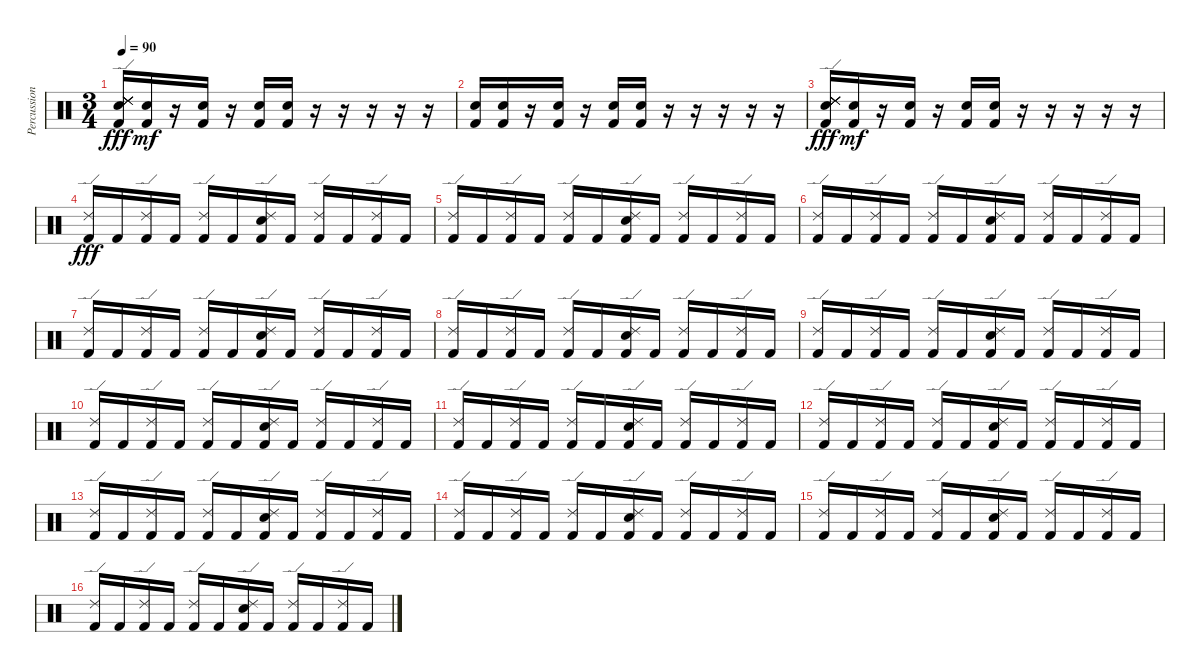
\track ("Percussioni" "Percussion") {instrument percussion}
\staff {score}
\articulation defaults
\ts (3 4)
\tempo 90
\clef neutral
\ks c
("Kick (hit) 2" "Snare (hit) 2" "Ride (edge) 2" "Ride (edge) 2" "Ride (edge) 2" "Ride (edge) 2").16{dy fff} ("Kick (hit) 2" "Snare (hit) 2").16{dy mf} r.16 ("Kick (hit) 2" "Snare (hit) 2").16 r.16 ("Kick (hit) 2" "Snare (hit) 2").16 ("Kick (hit) 2" "Snare (hit) 2").16 r.16 r.16 r.16 r.16 r.16 |
("Kick (hit) 2" "Snare (hit) 2").16 ("Kick (hit) 2" "Snare (hit) 2").16 r.16 ("Kick (hit) 2" "Snare (hit) 2").16 r.16 ("Kick (hit) 2" "Snare (hit) 2").16 ("Kick (hit) 2" "Snare (hit) 2").16 r.16 r.16 r.16 r.16 r.16 |
("Kick (hit) 2" "Snare (hit) 2" "Ride (edge) 2" "Ride (edge) 2" "Ride (edge) 2" "Ride (edge) 2").16{dy fff} ("Kick (hit) 2" "Snare (hit) 2").16{dy mf} r.16 ("Kick (hit) 2" "Snare (hit) 2").16 r.16 ("Kick (hit) 2" "Snare (hit) 2").16 ("Kick (hit) 2" "Snare (hit) 2").16 r.16 r.16 r.16 r.16 r.16 |
("Kick (hit) 2" "Ride (edge) 2").16{dy fff} "Kick (hit) 2".16 ("Kick (hit) 2" "Ride (edge) 2").16 "Kick (hit) 2".16 ("Kick (hit) 2" "Ride (edge) 2").16 "Kick (hit) 2".16 ("Kick (hit) 2" "Snare (hit) 2" "Ride (edge) 2").16 "Kick (hit) 2".16 ("Kick (hit) 2" "Ride (edge) 2").16 "Kick (hit) 2".16 ("Kick (hit) 2" "Ride (edge) 2").16 "Kick (hit) 2".16 |
("Kick (hit) 2" "Ride (edge) 2").16 "Kick (hit) 2".16 ("Kick (hit) 2" "Ride (edge) 2").16 "Kick (hit) 2".16 ("Kick (hit) 2" "Ride (edge) 2").16 "Kick (hit) 2".16 ("Kick (hit) 2" "Snare (hit) 2" "Ride (edge) 2").16 "Kick (hit) 2".16 ("Kick (hit) 2" "Ride (edge) 2").16 "Kick (hit) 2".16 ("Kick (hit) 2" "Ride (edge) 2").16 "Kick (hit) 2".16 |
("Kick (hit) 2" "Ride (edge) 2").16 "Kick (hit) 2".16 ("Kick (hit) 2" "Ride (edge) 2").16 "Kick (hit) 2".16 ("Kick (hit) 2" "Ride (edge) 2").16 "Kick (hit) 2".16 ("Kick (hit) 2" "Snare (hit) 2" "Ride (edge) 2").16 "Kick (hit) 2".16 ("Kick (hit) 2" "Ride (edge) 2").16 "Kick (hit) 2".16 ("Kick (hit) 2" "Ride (edge) 2").16 "Kick (hit) 2".16 |
("Kick (hit) 2" "Ride (edge) 2").16 "Kick (hit) 2".16 ("Kick (hit) 2" "Ride (edge) 2").16 "Kick (hit) 2".16 ("Kick (hit) 2" "Ride (edge) 2").16 "Kick (hit) 2".16 ("Kick (hit) 2" "Snare (hit) 2" "Ride (edge) 2").16 "Kick (hit) 2".16 ("Kick (hit) 2" "Ride (edge) 2").16 "Kick (hit) 2".16 ("Kick (hit) 2" "Ride (edge) 2").16 "Kick (hit) 2".16 |
("Kick (hit) 2" "Ride (edge) 2").16 "Kick (hit) 2".16 ("Kick (hit) 2" "Ride (edge) 2").16 "Kick (hit) 2".16 ("Kick (hit) 2" "Ride (edge) 2").16 "Kick (hit) 2".16 ("Kick (hit) 2" "Snare (hit) 2" "Ride (edge) 2").16 "Kick (hit) 2".16 ("Kick (hit) 2" "Ride (edge) 2").16 "Kick (hit) 2".16 ("Kick (hit) 2" "Ride (edge) 2").16 "Kick (hit) 2".16 |
("Kick (hit) 2" "Ride (edge) 2").16 "Kick (hit) 2".16 ("Kick (hit) 2" "Ride (edge) 2").16 "Kick (hit) 2".16 ("Kick (hit) 2" "Ride (edge) 2").16 "Kick (hit) 2".16 ("Kick (hit) 2" "Snare (hit) 2" "Ride (edge) 2").16 "Kick (hit) 2".16 ("Kick (hit) 2" "Ride (edge) 2").16 "Kick (hit) 2".16 ("Kick (hit) 2" "Ride (edge) 2").16 "Kick (hit) 2".16 |
("Kick (hit) 2" "Ride (edge) 2").16 "Kick (hit) 2".16 ("Kick (hit) 2" "Ride (edge) 2").16 "Kick (hit) 2".16 ("Kick (hit) 2" "Ride (edge) 2").16 "Kick (hit) 2".16 ("Kick (hit) 2" "Snare (hit) 2" "Ride (edge) 2").16 "Kick (hit) 2".16 ("Kick (hit) 2" "Ride (edge) 2").16 "Kick (hit) 2".16 ("Kick (hit) 2" "Ride (edge) 2").16 "Kick (hit) 2".16 |
("Kick (hit) 2" "Ride (edge) 2").16 "Kick (hit) 2".16 ("Kick (hit) 2" "Ride (edge) 2").16 "Kick (hit) 2".16 ("Kick (hit) 2" "Ride (edge) 2").16 "Kick (hit) 2".16 ("Kick (hit) 2" "Snare (hit) 2" "Ride (edge) 2").16 "Kick (hit) 2".16 ("Kick (hit) 2" "Ride (edge) 2").16 "Kick (hit) 2".16 ("Kick (hit) 2" "Ride (edge) 2").16 "Kick (hit) 2".16 |
("Kick (hit) 2" "Ride (edge) 2").16 "Kick (hit) 2".16 ("Kick (hit) 2" "Ride (edge) 2").16 "Kick (hit) 2".16 ("Kick (hit) 2" "Ride (edge) 2").16 "Kick (hit) 2".16 ("Kick (hit) 2" "Snare (hit) 2" "Ride (edge) 2").16 "Kick (hit) 2".16 ("Kick (hit) 2" "Ride (edge) 2").16 "Kick (hit) 2".16 ("Kick (hit) 2" "Ride (edge) 2").16 "Kick (hit) 2".16 |
("Kick (hit) 2" "Ride (edge) 2").16 "Kick (hit) 2".16 ("Kick (hit) 2" "Ride (edge) 2").16 "Kick (hit) 2".16 ("Kick (hit) 2" "Ride (edge) 2").16 "Kick (hit) 2".16 ("Kick (hit) 2" "Snare (hit) 2" "Ride (edge) 2").16 "Kick (hit) 2".16 ("Kick (hit) 2" "Ride (edge) 2").16 "Kick (hit) 2".16 ("Kick (hit) 2" "Ride (edge) 2").16 "Kick (hit) 2".16 |
("Kick (hit) 2" "Ride (edge) 2").16 "Kick (hit) 2".16 ("Kick (hit) 2" "Ride (edge) 2").16 "Kick (hit) 2".16 ("Kick (hit) 2" "Ride (edge) 2").16 "Kick (hit) 2".16 ("Kick (hit) 2" "Snare (hit) 2" "Ride (edge) 2").16 "Kick (hit) 2".16 ("Kick (hit) 2" "Ride (edge) 2").16 "Kick (hit) 2".16 ("Kick (hit) 2" "Ride (edge) 2").16 "Kick (hit) 2".16 |
("Kick (hit) 2" "Ride (edge) 2").16 "Kick (hit) 2".16 ("Kick (hit) 2" "Ride (edge) 2").16 "Kick (hit) 2".16 ("Kick (hit) 2" "Ride (edge) 2").16 "Kick (hit) 2".16 ("Kick (hit) 2" "Snare (hit) 2" "Ride (edge) 2").16 "Kick (hit) 2".16 ("Kick (hit) 2" "Ride (edge) 2").16 "Kick (hit) 2".16 ("Kick (hit) 2" "Ride (edge) 2").16 "Kick (hit) 2".16 |
("Kick (hit) 2" "Ride (edge) 2").16 "Kick (hit) 2".16 ("Kick (hit) 2" "Ride (edge) 2").16 "Kick (hit) 2".16 ("Kick (hit) 2" "Ride (edge) 2").16 "Kick (hit) 2".16 ("Kick (hit) 2" "Snare (hit) 2" "Ride (edge) 2").16 "Kick (hit) 2".16 ("Kick (hit) 2" "Ride (edge) 2").16 "Kick (hit) 2".16 ("Kick (hit) 2" "Ride (edge) 2").16 "Kick (hit) 2".16
